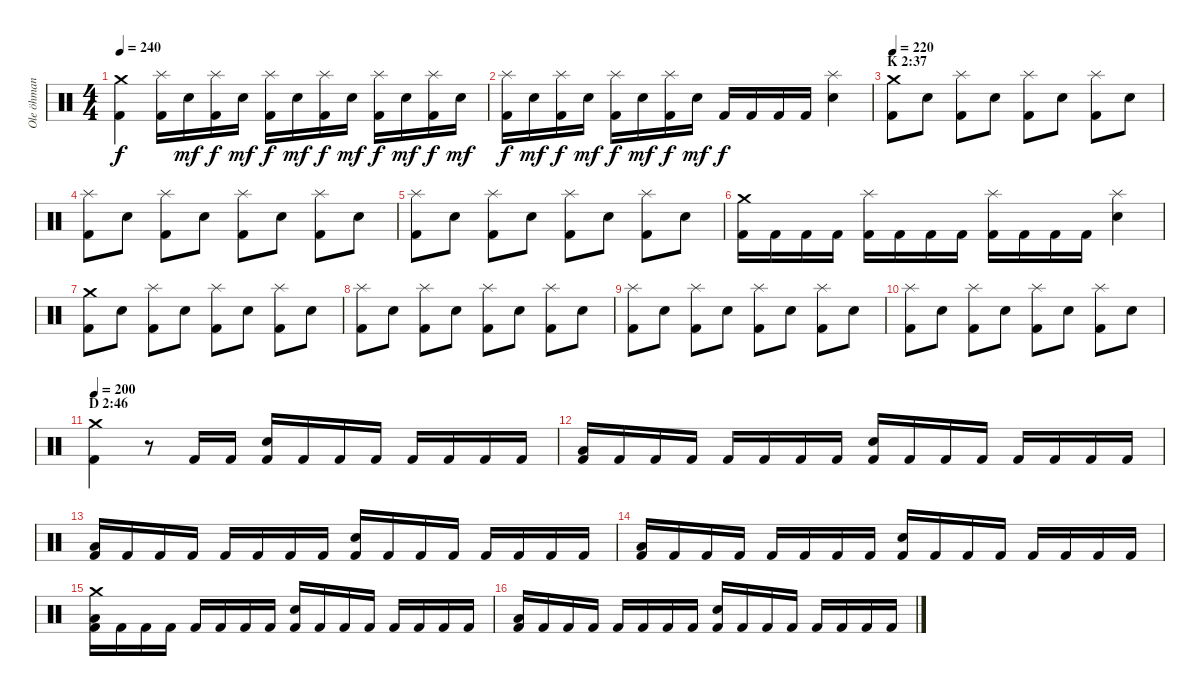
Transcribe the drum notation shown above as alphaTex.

\track ("Ole öhman" "Ole öhman") {instrument percussion}
\staff {score}
\articulation defaults
\ts (4 4)
\tempo 240
\clef neutral
\ks c
("Crash medium (hit)" "Kick (hit) 2").4{dy f} ("Splash (hit)" "Kick (hit) 2").16 "Electric Snare (hit)".16{dy mf} ("Splash (hit)" "Kick (hit) 2").16{dy f} "Electric Snare (hit)".16{dy mf} ("Splash (hit)" "Kick (hit) 2").16{dy f} "Electric Snare (hit)".16{dy mf} ("Splash (hit)" "Kick (hit) 2").16{dy f} "Electric Snare (hit)".16{dy mf} ("Splash (hit)" "Kick (hit) 2").16{dy f} "Electric Snare (hit)".16{dy mf} ("Splash (hit)" "Kick (hit) 2").16{dy f} "Electric Snare (hit)".16{dy mf} |
("Splash (hit)" "Kick (hit) 2").16{dy f} "Electric Snare (hit)".16{dy mf} ("Splash (hit)" "Kick (hit) 2").16{dy f} "Electric Snare (hit)".16{dy mf} ("Splash (hit)" "Kick (hit) 2").16{dy f} "Electric Snare (hit)".16{dy mf} ("Splash (hit)" "Kick (hit) 2").16{dy f} "Electric Snare (hit)".16{dy mf} "Kick (hit) 2".16{dy f} "Kick (hit) 2".16 "Kick (hit) 2".16 "Kick (hit) 2".16 ("Splash (hit)" "Electric Snare (hit)").4 |
\section ("" "K 2:37")
\tempo 220
("Crash medium (hit)" "Kick (hit) 2").8 "Electric Snare (hit)".8 ("Splash (hit)" "Kick (hit) 2").8 "Electric Snare (hit)".8 ("Splash (hit)" "Kick (hit) 2").8 "Electric Snare (hit)".8 ("Splash (hit)" "Kick (hit) 2").8 "Electric Snare (hit)".8 |
("Splash (hit)" "Kick (hit) 2").8 "Electric Snare (hit)".8 ("Splash (hit)" "Kick (hit) 2").8 "Electric Snare (hit)".8 ("Splash (hit)" "Kick (hit) 2").8 "Electric Snare (hit)".8 ("Splash (hit)" "Kick (hit) 2").8 "Electric Snare (hit)".8 |
("Splash (hit)" "Kick (hit) 2").8 "Electric Snare (hit)".8 ("Splash (hit)" "Kick (hit) 2").8 "Electric Snare (hit)".8 ("Splash (hit)" "Kick (hit) 2").8 "Electric Snare (hit)".8 ("Splash (hit)" "Kick (hit) 2").8 "Electric Snare (hit)".8 |
("Crash medium (hit)" "Kick (hit) 2").16 "Kick (hit) 2".16 "Kick (hit) 2".16 "Kick (hit) 2".16 ("Splash (hit)" "Kick (hit) 2").16 "Kick (hit) 2".16 "Kick (hit) 2".16 "Kick (hit) 2".16 ("Splash (hit)" "Kick (hit) 2").16 "Kick (hit) 2".16 "Kick (hit) 2".16 "Kick (hit) 2".16 ("Splash (hit)" "Electric Snare (hit)").4 |
("Crash medium (hit)" "Kick (hit) 2").8 "Electric Snare (hit)".8 ("Splash (hit)" "Kick (hit) 2").8 "Electric Snare (hit)".8 ("Splash (hit)" "Kick (hit) 2").8 "Electric Snare (hit)".8 ("Splash (hit)" "Kick (hit) 2").8 "Electric Snare (hit)".8 |
("Splash (hit)" "Kick (hit) 2").8 "Electric Snare (hit)".8 ("Splash (hit)" "Kick (hit) 2").8 "Electric Snare (hit)".8 ("Splash (hit)" "Kick (hit) 2").8 "Electric Snare (hit)".8 ("Splash (hit)" "Kick (hit) 2").8 "Electric Snare (hit)".8 |
("Splash (hit)" "Kick (hit) 2").8 "Electric Snare (hit)".8 ("Splash (hit)" "Kick (hit) 2").8 "Electric Snare (hit)".8 ("Splash (hit)" "Kick (hit) 2").8 "Electric Snare (hit)".8 ("Splash (hit)" "Kick (hit) 2").8 "Electric Snare (hit)".8 |
("Splash (hit)" "Kick (hit) 2").8 "Electric Snare (hit)".8 ("Splash (hit)" "Kick (hit) 2").8 "Electric Snare (hit)".8 ("Splash (hit)" "Kick (hit) 2").8 "Electric Snare (hit)".8 ("Splash (hit)" "Kick (hit) 2").8 "Electric Snare (hit)".8 |
\section ("" "D 2:46")
\tempo 200
("Crash medium (hit)" "Kick (hit) 2").4 r.8 "Kick (hit) 2".16 "Kick (hit) 2".16 ("Electric Snare (hit)" "Kick (hit) 2").16 "Kick (hit) 2".16 "Kick (hit) 2".16 "Kick (hit) 2".16 "Kick (hit) 2".16 "Kick (hit) 2".16 "Kick (hit) 2".16 "Kick (hit) 2".16 |
("Low Tom (hit)" "Kick (hit) 2").16 "Kick (hit) 2".16 "Kick (hit) 2".16 "Kick (hit) 2".16 "Kick (hit) 2".16 "Kick (hit) 2".16 "Kick (hit) 2".16 "Kick (hit) 2".16 ("Electric Snare (hit)" "Kick (hit) 2").16 "Kick (hit) 2".16 "Kick (hit) 2".16 "Kick (hit) 2".16 "Kick (hit) 2".16 "Kick (hit) 2".16 "Kick (hit) 2".16 "Kick (hit) 2".16 |
("Low Tom (hit)" "Kick (hit) 2").16 "Kick (hit) 2".16 "Kick (hit) 2".16 "Kick (hit) 2".16 "Kick (hit) 2".16 "Kick (hit) 2".16 "Kick (hit) 2".16 "Kick (hit) 2".16 ("Electric Snare (hit)" "Kick (hit) 2").16 "Kick (hit) 2".16 "Kick (hit) 2".16 "Kick (hit) 2".16 "Kick (hit) 2".16 "Kick (hit) 2".16 "Kick (hit) 2".16 "Kick (hit) 2".16 |
("Low Tom (hit)" "Kick (hit) 2").16 "Kick (hit) 2".16 "Kick (hit) 2".16 "Kick (hit) 2".16 "Kick (hit) 2".16 "Kick (hit) 2".16 "Kick (hit) 2".16 "Kick (hit) 2".16 ("Electric Snare (hit)" "Kick (hit) 2").16 "Kick (hit) 2".16 "Kick (hit) 2".16 "Kick (hit) 2".16 "Kick (hit) 2".16 "Kick (hit) 2".16 "Kick (hit) 2".16 "Kick (hit) 2".16 |
("Crash medium (hit)" "Low Tom (hit)" "Kick (hit) 2").16 "Kick (hit) 2".16 "Kick (hit) 2".16 "Kick (hit) 2".16 "Kick (hit) 2".16 "Kick (hit) 2".16 "Kick (hit) 2".16 "Kick (hit) 2".16 ("Electric Snare (hit)" "Kick (hit) 2").16 "Kick (hit) 2".16 "Kick (hit) 2".16 "Kick (hit) 2".16 "Kick (hit) 2".16 "Kick (hit) 2".16 "Kick (hit) 2".16 "Kick (hit) 2".16 |
("Low Tom (hit)" "Kick (hit) 2").16 "Kick (hit) 2".16 "Kick (hit) 2".16 "Kick (hit) 2".16 "Kick (hit) 2".16 "Kick (hit) 2".16 "Kick (hit) 2".16 "Kick (hit) 2".16 ("Electric Snare (hit)" "Kick (hit) 2").16 "Kick (hit) 2".16 "Kick (hit) 2".16 "Kick (hit) 2".16 "Kick (hit) 2".16 "Kick (hit) 2".16 "Kick (hit) 2".16 "Kick (hit) 2".16
